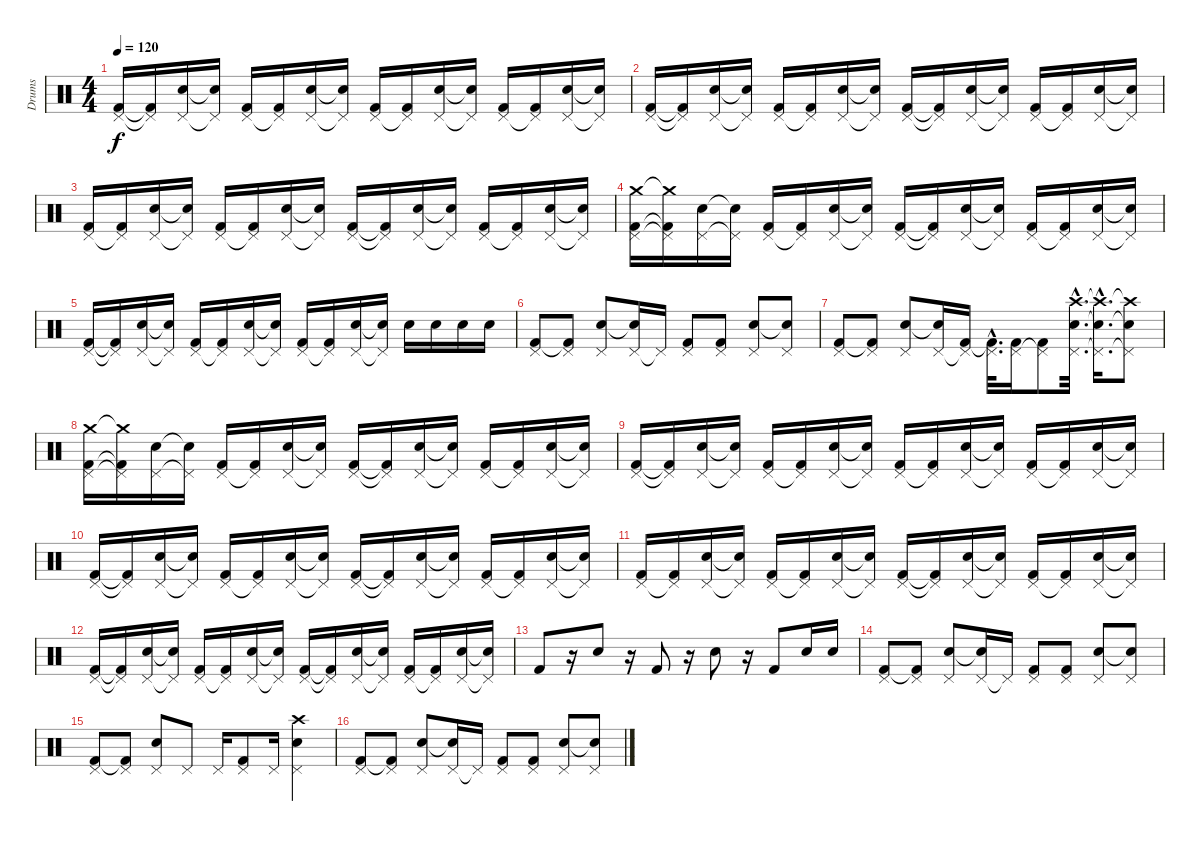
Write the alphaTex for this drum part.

\track ("Drums" "Drums") {instrument percussion}
\staff {score}
\articulation defaults
\ts (4 4)
\tempo 120
\clef neutral
\ks c
("Pedal Hi-Hat (hit)" "Kick (hit) 2").16{dy f} ("Pedal Hi-Hat (hit)"{t} "Kick (hit) 2"{t}).16 ("Pedal Hi-Hat (hit)" "Snare (hit) 2").16 ("Pedal Hi-Hat (hit)"{t} "Snare (hit) 2"{t}).16 ("Pedal Hi-Hat (hit)" "Kick (hit) 2").16 ("Pedal Hi-Hat (hit)"{t} "Kick (hit) 2").16 ("Pedal Hi-Hat (hit)" "Snare (hit) 2").16 ("Pedal Hi-Hat (hit)"{t} "Snare (hit) 2"{t}).16 ("Pedal Hi-Hat (hit)" "Kick (hit) 2").16 ("Pedal Hi-Hat (hit)"{t} "Kick (hit) 2").16 ("Pedal Hi-Hat (hit)" "Snare (hit) 2").16 ("Pedal Hi-Hat (hit)"{t} "Snare (hit) 2"{t}).16 ("Pedal Hi-Hat (hit)" "Kick (hit) 2").16 ("Pedal Hi-Hat (hit)"{t} "Kick (hit) 2").16 ("Pedal Hi-Hat (hit)" "Snare (hit) 2").16 ("Pedal Hi-Hat (hit)"{t} "Snare (hit) 2"{t}).16 |
("Pedal Hi-Hat (hit)" "Kick (hit) 2").16 ("Pedal Hi-Hat (hit)"{t} "Kick (hit) 2"{t}).16 ("Pedal Hi-Hat (hit)" "Snare (hit) 2").16 ("Pedal Hi-Hat (hit)"{t} "Snare (hit) 2"{t}).16 ("Pedal Hi-Hat (hit)" "Kick (hit) 2").16 ("Pedal Hi-Hat (hit)"{t} "Kick (hit) 2").16 ("Pedal Hi-Hat (hit)" "Snare (hit) 2").16 ("Pedal Hi-Hat (hit)"{t} "Snare (hit) 2"{t}).16 ("Pedal Hi-Hat (hit)" "Kick (hit) 2").16 ("Pedal Hi-Hat (hit)"{t} "Kick (hit) 2"{t}).16 ("Pedal Hi-Hat (hit)" "Snare (hit) 2").16 ("Pedal Hi-Hat (hit)"{t} "Snare (hit) 2"{t}).16 ("Pedal Hi-Hat (hit)" "Kick (hit) 2").16 ("Pedal Hi-Hat (hit)"{t} "Kick (hit) 2").16 ("Pedal Hi-Hat (hit)" "Snare (hit) 2").16 ("Pedal Hi-Hat (hit)"{t} "Snare (hit) 2"{t}).16 |
("Pedal Hi-Hat (hit)" "Kick (hit) 2").16 ("Pedal Hi-Hat (hit)"{t} "Kick (hit) 2").16 ("Pedal Hi-Hat (hit)" "Snare (hit) 2").16 ("Pedal Hi-Hat (hit)"{t} "Snare (hit) 2"{t}).16 ("Pedal Hi-Hat (hit)" "Kick (hit) 2").16 ("Pedal Hi-Hat (hit)"{t} "Kick (hit) 2").16 ("Pedal Hi-Hat (hit)" "Snare (hit) 2").16 ("Pedal Hi-Hat (hit)"{t} "Snare (hit) 2"{t}).16 ("Pedal Hi-Hat (hit)" "Kick (hit) 2").16 ("Pedal Hi-Hat (hit)"{t} "Kick (hit) 2"{t}).16 ("Pedal Hi-Hat (hit)" "Snare (hit) 2").16 ("Pedal Hi-Hat (hit)"{t} "Snare (hit) 2"{t}).16 ("Pedal Hi-Hat (hit)" "Kick (hit) 2").16 ("Pedal Hi-Hat (hit)"{t} "Kick (hit) 2").16 ("Pedal Hi-Hat (hit)" "Snare (hit) 2").16 ("Pedal Hi-Hat (hit)"{t} "Snare (hit) 2"{t}).16 |
("Pedal Hi-Hat (hit)" "Crash medium (hit)" "Kick (hit) 2").16 ("Pedal Hi-Hat (hit)"{t} "Crash medium (hit)"{t} "Kick (hit) 2"{t}).16 ("Pedal Hi-Hat (hit)" "Snare (hit) 2").16 ("Pedal Hi-Hat (hit)"{t} "Snare (hit) 2"{t}).16 ("Pedal Hi-Hat (hit)" "Kick (hit) 2").16 ("Pedal Hi-Hat (hit)"{t} "Kick (hit) 2").16 ("Pedal Hi-Hat (hit)" "Snare (hit) 2").16 ("Pedal Hi-Hat (hit)"{t} "Snare (hit) 2"{t}).16 ("Pedal Hi-Hat (hit)" "Kick (hit) 2").16 ("Pedal Hi-Hat (hit)"{t} "Kick (hit) 2"{t}).16 ("Pedal Hi-Hat (hit)" "Snare (hit) 2").16 ("Pedal Hi-Hat (hit)"{t} "Snare (hit) 2"{t}).16 ("Pedal Hi-Hat (hit)" "Kick (hit) 2").16 ("Pedal Hi-Hat (hit)"{t} "Kick (hit) 2").16 ("Pedal Hi-Hat (hit)" "Snare (hit) 2").16 ("Pedal Hi-Hat (hit)"{t} "Snare (hit) 2"{t}).16 |
("Pedal Hi-Hat (hit)" "Kick (hit) 2").16 ("Pedal Hi-Hat (hit)"{t} "Kick (hit) 2"{t}).16 ("Pedal Hi-Hat (hit)" "Snare (hit) 2").16 ("Pedal Hi-Hat (hit)"{t} "Snare (hit) 2"{t}).16 ("Pedal Hi-Hat (hit)" "Kick (hit) 2").16 ("Pedal Hi-Hat (hit)"{t} "Kick (hit) 2").16 ("Pedal Hi-Hat (hit)" "Snare (hit) 2").16 ("Pedal Hi-Hat (hit)"{t} "Snare (hit) 2"{t}).16 ("Pedal Hi-Hat (hit)" "Kick (hit) 2").16 ("Pedal Hi-Hat (hit)"{t} "Kick (hit) 2").16 ("Pedal Hi-Hat (hit)" "Snare (hit) 2").16 ("Pedal Hi-Hat (hit)"{t} "Snare (hit) 2"{t}).16 "Snare (hit) 2".16 "Snare (hit) 2".16 "Snare (hit) 2".16 "Snare (hit) 2".16 |
("Pedal Hi-Hat (hit)" "Kick (hit) 2").8 ("Pedal Hi-Hat (hit)" "Kick (hit) 2"{t}).8 ("Pedal Hi-Hat (hit)" "Snare (hit) 2").8 ("Pedal Hi-Hat (hit)" "Snare (hit) 2"{t}).16 "Pedal Hi-Hat (hit)"{t}.16 ("Pedal Hi-Hat (hit)" "Kick (hit) 2").8 ("Pedal Hi-Hat (hit)" "Kick (hit) 2").8 ("Pedal Hi-Hat (hit)" "Snare (hit) 2").8 ("Pedal Hi-Hat (hit)" "Snare (hit) 2"{t}).8 |
("Pedal Hi-Hat (hit)" "Kick (hit) 2").8 ("Pedal Hi-Hat (hit)" "Kick (hit) 2"{t}).8 ("Pedal Hi-Hat (hit)" "Snare (hit) 2").8 ("Pedal Hi-Hat (hit)" "Snare (hit) 2"{t}).16 ("Pedal Hi-Hat (hit)"{t} "Kick (hit) 2").16 ("Pedal Hi-Hat (hit)"{hac} "Kick (hit) 2"{hac t}).32{d} ("Pedal Hi-Hat (hit)" "Kick (hit) 2").16 ("Pedal Hi-Hat (hit)"{t} "Kick (hit) 2").8 ("Pedal Hi-Hat (hit)"{hac} "Crash high (hit)"{hac} "Snare (hit) 2"{hac}).32{d} ("Pedal Hi-Hat (hit)"{hac t} "Crash high (hit)"{hac t} "Snare (hit) 2"{hac t}).16{d} ("Pedal Hi-Hat (hit)"{t} "Crash high (hit)"{t} "Snare (hit) 2"{t}).8 |
("Pedal Hi-Hat (hit)" "Crash medium (hit)" "Kick (hit) 2").16 ("Pedal Hi-Hat (hit)"{t} "Crash medium (hit)"{t} "Kick (hit) 2"{t}).16 ("Pedal Hi-Hat (hit)" "Snare (hit) 2").16 ("Pedal Hi-Hat (hit)"{t} "Snare (hit) 2"{t}).16 ("Pedal Hi-Hat (hit)" "Kick (hit) 2").16 ("Pedal Hi-Hat (hit)"{t} "Kick (hit) 2").16 ("Pedal Hi-Hat (hit)" "Snare (hit) 2").16 ("Pedal Hi-Hat (hit)"{t} "Snare (hit) 2"{t}).16 ("Pedal Hi-Hat (hit)" "Kick (hit) 2").16 ("Pedal Hi-Hat (hit)"{t} "Kick (hit) 2"{t}).16 ("Pedal Hi-Hat (hit)" "Snare (hit) 2").16 ("Pedal Hi-Hat (hit)"{t} "Snare (hit) 2"{t}).16 ("Pedal Hi-Hat (hit)" "Kick (hit) 2").16 ("Pedal Hi-Hat (hit)"{t} "Kick (hit) 2").16 ("Pedal Hi-Hat (hit)" "Snare (hit) 2").16 ("Pedal Hi-Hat (hit)"{t} "Snare (hit) 2"{t}).16 |
("Pedal Hi-Hat (hit)" "Kick (hit) 2").16 ("Pedal Hi-Hat (hit)"{t} "Kick (hit) 2"{t}).16 ("Pedal Hi-Hat (hit)" "Snare (hit) 2").16 ("Pedal Hi-Hat (hit)"{t} "Snare (hit) 2"{t}).16 ("Pedal Hi-Hat (hit)" "Kick (hit) 2").16 ("Pedal Hi-Hat (hit)"{t} "Kick (hit) 2").16 ("Pedal Hi-Hat (hit)" "Snare (hit) 2").16 ("Pedal Hi-Hat (hit)"{t} "Snare (hit) 2"{t}).16 ("Pedal Hi-Hat (hit)" "Kick (hit) 2").16 ("Pedal Hi-Hat (hit)"{t} "Kick (hit) 2").16 ("Pedal Hi-Hat (hit)" "Snare (hit) 2").16 ("Pedal Hi-Hat (hit)"{t} "Snare (hit) 2"{t}).16 ("Pedal Hi-Hat (hit)" "Kick (hit) 2").16 ("Pedal Hi-Hat (hit)"{t} "Kick (hit) 2").16 ("Pedal Hi-Hat (hit)" "Snare (hit) 2").16 ("Pedal Hi-Hat (hit)"{t} "Snare (hit) 2"{t}).16 |
("Pedal Hi-Hat (hit)" "Kick (hit) 2").16 ("Pedal Hi-Hat (hit)"{t} "Kick (hit) 2"{t}).16 ("Pedal Hi-Hat (hit)" "Snare (hit) 2").16 ("Pedal Hi-Hat (hit)"{t} "Snare (hit) 2"{t}).16 ("Pedal Hi-Hat (hit)" "Kick (hit) 2").16 ("Pedal Hi-Hat (hit)"{t} "Kick (hit) 2").16 ("Pedal Hi-Hat (hit)" "Snare (hit) 2").16 ("Pedal Hi-Hat (hit)"{t} "Snare (hit) 2"{t}).16 ("Pedal Hi-Hat (hit)" "Kick (hit) 2").16 ("Pedal Hi-Hat (hit)"{t} "Kick (hit) 2"{t}).16 ("Pedal Hi-Hat (hit)" "Snare (hit) 2").16 ("Pedal Hi-Hat (hit)"{t} "Snare (hit) 2"{t}).16 ("Pedal Hi-Hat (hit)" "Kick (hit) 2").16 ("Pedal Hi-Hat (hit)"{t} "Kick (hit) 2").16 ("Pedal Hi-Hat (hit)" "Snare (hit) 2").16 ("Pedal Hi-Hat (hit)"{t} "Snare (hit) 2"{t}).16 |
("Pedal Hi-Hat (hit)" "Kick (hit) 2").16 ("Pedal Hi-Hat (hit)"{t} "Kick (hit) 2").16 ("Pedal Hi-Hat (hit)" "Snare (hit) 2").16 ("Pedal Hi-Hat (hit)"{t} "Snare (hit) 2"{t}).16 ("Pedal Hi-Hat (hit)" "Kick (hit) 2").16 ("Pedal Hi-Hat (hit)"{t} "Kick (hit) 2").16 ("Pedal Hi-Hat (hit)" "Snare (hit) 2").16 ("Pedal Hi-Hat (hit)"{t} "Snare (hit) 2"{t}).16 ("Pedal Hi-Hat (hit)" "Kick (hit) 2").16 ("Pedal Hi-Hat (hit)"{t} "Kick (hit) 2"{t}).16 ("Pedal Hi-Hat (hit)" "Snare (hit) 2").16 ("Pedal Hi-Hat (hit)"{t} "Snare (hit) 2"{t}).16 ("Pedal Hi-Hat (hit)" "Kick (hit) 2").16 ("Pedal Hi-Hat (hit)"{t} "Kick (hit) 2").16 ("Pedal Hi-Hat (hit)" "Snare (hit) 2").16 ("Pedal Hi-Hat (hit)"{t} "Snare (hit) 2"{t}).16 |
("Pedal Hi-Hat (hit)" "Kick (hit) 2").16 ("Pedal Hi-Hat (hit)"{t} "Kick (hit) 2"{t}).16 ("Pedal Hi-Hat (hit)" "Snare (hit) 2").16 ("Pedal Hi-Hat (hit)"{t} "Snare (hit) 2"{t}).16 ("Pedal Hi-Hat (hit)" "Kick (hit) 2").16 ("Pedal Hi-Hat (hit)"{t} "Kick (hit) 2").16 ("Pedal Hi-Hat (hit)" "Snare (hit) 2").16 ("Pedal Hi-Hat (hit)"{t} "Snare (hit) 2"{t}).16 ("Pedal Hi-Hat (hit)" "Kick (hit) 2").16 ("Pedal Hi-Hat (hit)"{t} "Kick (hit) 2"{t}).16 ("Pedal Hi-Hat (hit)" "Snare (hit) 2").16 ("Pedal Hi-Hat (hit)"{t} "Snare (hit) 2"{t}).16 ("Pedal Hi-Hat (hit)" "Kick (hit) 2").16 ("Pedal Hi-Hat (hit)"{t} "Kick (hit) 2").16 ("Pedal Hi-Hat (hit)" "Snare (hit) 2").16 ("Pedal Hi-Hat (hit)"{t} "Snare (hit) 2"{t}).16 |
"Kick (hit) 2".8 r.16 "Snare (hit) 2".8 r.16 "Kick (hit) 2".8 r.16 "Snare (hit) 2".8 r.16 "Kick (hit) 2".8 "Snare (hit) 2".16 "Snare (hit) 2".16 |
("Pedal Hi-Hat (hit)" "Kick (hit) 2").8 ("Pedal Hi-Hat (hit)" "Kick (hit) 2"{t}).8 ("Pedal Hi-Hat (hit)" "Snare (hit) 2").8 ("Pedal Hi-Hat (hit)" "Snare (hit) 2"{t}).16 "Pedal Hi-Hat (hit)"{t}.16 ("Pedal Hi-Hat (hit)" "Kick (hit) 2").8 ("Pedal Hi-Hat (hit)" "Kick (hit) 2").8 ("Pedal Hi-Hat (hit)" "Snare (hit) 2").8 ("Pedal Hi-Hat (hit)" "Snare (hit) 2"{t}).8 |
("Pedal Hi-Hat (hit)" "Kick (hit) 2").8 ("Pedal Hi-Hat (hit)" "Kick (hit) 2"{t}).8 ("Pedal Hi-Hat (hit)" "Snare (hit) 2").8 "Pedal Hi-Hat (hit)".8 "Pedal Hi-Hat (hit)".16 ("Pedal Hi-Hat (hit)" "Kick (hit) 2").8 "Pedal Hi-Hat (hit)".16 ("Pedal Hi-Hat (hit)" "Crash high (hit)" "Snare (hit) 2").4 |
("Pedal Hi-Hat (hit)" "Kick (hit) 2").8 ("Pedal Hi-Hat (hit)" "Kick (hit) 2"{t}).8 ("Pedal Hi-Hat (hit)" "Snare (hit) 2").8 ("Pedal Hi-Hat (hit)" "Snare (hit) 2"{t}).16 "Pedal Hi-Hat (hit)"{t}.16 ("Pedal Hi-Hat (hit)" "Kick (hit) 2").8 ("Pedal Hi-Hat (hit)" "Kick (hit) 2").8 ("Pedal Hi-Hat (hit)" "Snare (hit) 2").8 ("Pedal Hi-Hat (hit)" "Snare (hit) 2"{t}).8
